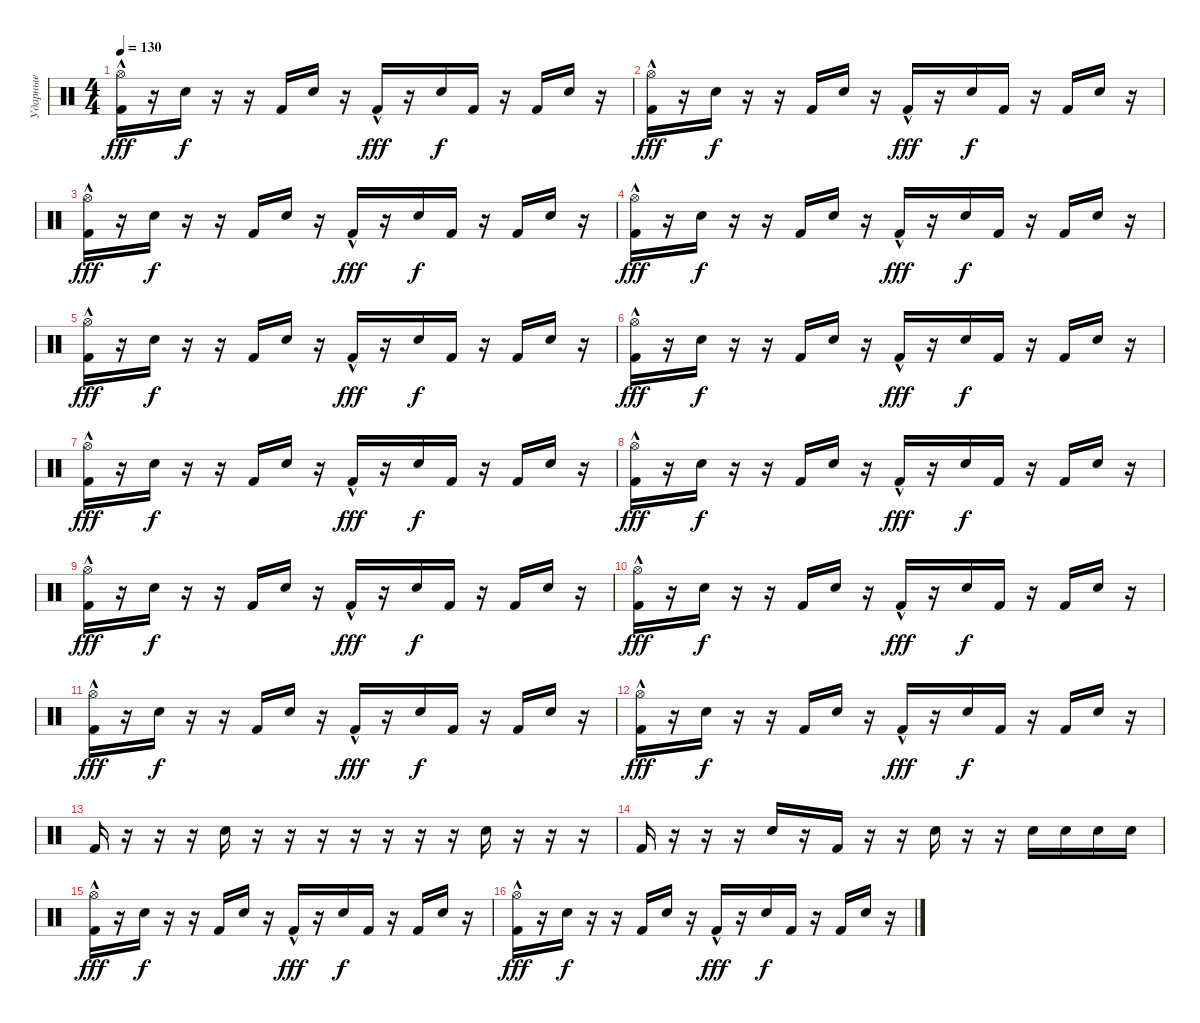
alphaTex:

\track ("Ударные" "Ударные") {instrument percussion}
\staff {score}
\articulation defaults
\ts (4 4)
\tempo 130
\clef neutral
\ks c
("Hi-Hat (open)" "Kick (hit) 2"{hac}).16{dy fff} r.16 "Electric Snare (hit)".16{dy f} r.16 r.16 "Kick (hit) 2".16 "Electric Snare (hit)".16 r.16 "Kick (hit) 2"{hac}.16{dy fff} r.16 "Electric Snare (hit)".16{dy f} "Kick (hit) 2".16 r.16 "Kick (hit) 2".16 "Electric Snare (hit)".16 r.16 |
("Hi-Hat (open)" "Kick (hit) 2"{hac}).16{dy fff} r.16 "Electric Snare (hit)".16{dy f} r.16 r.16 "Kick (hit) 2".16 "Electric Snare (hit)".16 r.16 "Kick (hit) 2"{hac}.16{dy fff} r.16 "Electric Snare (hit)".16{dy f} "Kick (hit) 2".16 r.16 "Kick (hit) 2".16 "Electric Snare (hit)".16 r.16 |
("Hi-Hat (open)" "Kick (hit) 2"{hac}).16{dy fff} r.16 "Electric Snare (hit)".16{dy f} r.16 r.16 "Kick (hit) 2".16 "Electric Snare (hit)".16 r.16 "Kick (hit) 2"{hac}.16{dy fff} r.16 "Electric Snare (hit)".16{dy f} "Kick (hit) 2".16 r.16 "Kick (hit) 2".16 "Electric Snare (hit)".16 r.16 |
("Hi-Hat (open)" "Kick (hit) 2"{hac}).16{dy fff} r.16 "Electric Snare (hit)".16{dy f} r.16 r.16 "Kick (hit) 2".16 "Electric Snare (hit)".16 r.16 "Kick (hit) 2"{hac}.16{dy fff} r.16 "Electric Snare (hit)".16{dy f} "Kick (hit) 2".16 r.16 "Kick (hit) 2".16 "Electric Snare (hit)".16 r.16 |
("Hi-Hat (open)" "Kick (hit) 2"{hac}).16{dy fff} r.16 "Electric Snare (hit)".16{dy f} r.16 r.16 "Kick (hit) 2".16 "Electric Snare (hit)".16 r.16 "Kick (hit) 2"{hac}.16{dy fff} r.16 "Electric Snare (hit)".16{dy f} "Kick (hit) 2".16 r.16 "Kick (hit) 2".16 "Electric Snare (hit)".16 r.16 |
("Hi-Hat (open)" "Kick (hit) 2"{hac}).16{dy fff} r.16 "Electric Snare (hit)".16{dy f} r.16 r.16 "Kick (hit) 2".16 "Electric Snare (hit)".16 r.16 "Kick (hit) 2"{hac}.16{dy fff} r.16 "Electric Snare (hit)".16{dy f} "Kick (hit) 2".16 r.16 "Kick (hit) 2".16 "Electric Snare (hit)".16 r.16 |
("Hi-Hat (open)" "Kick (hit) 2"{hac}).16{dy fff} r.16 "Electric Snare (hit)".16{dy f} r.16 r.16 "Kick (hit) 2".16 "Electric Snare (hit)".16 r.16 "Kick (hit) 2"{hac}.16{dy fff} r.16 "Electric Snare (hit)".16{dy f} "Kick (hit) 2".16 r.16 "Kick (hit) 2".16 "Electric Snare (hit)".16 r.16 |
("Hi-Hat (open)" "Kick (hit) 2"{hac}).16{dy fff} r.16 "Electric Snare (hit)".16{dy f} r.16 r.16 "Kick (hit) 2".16 "Electric Snare (hit)".16 r.16 "Kick (hit) 2"{hac}.16{dy fff} r.16 "Electric Snare (hit)".16{dy f} "Kick (hit) 2".16 r.16 "Kick (hit) 2".16 "Electric Snare (hit)".16 r.16 |
("Hi-Hat (open)" "Kick (hit) 2"{hac}).16{dy fff} r.16 "Electric Snare (hit)".16{dy f} r.16 r.16 "Kick (hit) 2".16 "Electric Snare (hit)".16 r.16 "Kick (hit) 2"{hac}.16{dy fff} r.16 "Electric Snare (hit)".16{dy f} "Kick (hit) 2".16 r.16 "Kick (hit) 2".16 "Electric Snare (hit)".16 r.16 |
("Hi-Hat (open)" "Kick (hit) 2"{hac}).16{dy fff} r.16 "Electric Snare (hit)".16{dy f} r.16 r.16 "Kick (hit) 2".16 "Electric Snare (hit)".16 r.16 "Kick (hit) 2"{hac}.16{dy fff} r.16 "Electric Snare (hit)".16{dy f} "Kick (hit) 2".16 r.16 "Kick (hit) 2".16 "Electric Snare (hit)".16 r.16 |
("Hi-Hat (open)" "Kick (hit) 2"{hac}).16{dy fff} r.16 "Electric Snare (hit)".16{dy f} r.16 r.16 "Kick (hit) 2".16 "Electric Snare (hit)".16 r.16 "Kick (hit) 2"{hac}.16{dy fff} r.16 "Electric Snare (hit)".16{dy f} "Kick (hit) 2".16 r.16 "Kick (hit) 2".16 "Electric Snare (hit)".16 r.16 |
("Hi-Hat (open)" "Kick (hit) 2"{hac}).16{dy fff} r.16 "Electric Snare (hit)".16{dy f} r.16 r.16 "Kick (hit) 2".16 "Electric Snare (hit)".16 r.16 "Kick (hit) 2"{hac}.16{dy fff} r.16 "Electric Snare (hit)".16{dy f} "Kick (hit) 2".16 r.16 "Kick (hit) 2".16 "Electric Snare (hit)".16 r.16 |
"Kick (hit) 2".16 r.16 r.16 r.16 "Electric Snare (hit)".16 r.16 r.16 r.16 r.16 r.16 r.16 r.16 "Electric Snare (hit)".16 r.16 r.16 r.16 |
"Kick (hit) 2".16 r.16 r.16 r.16 "Electric Snare (hit)".16 r.16 "Kick (hit) 2".16 r.16 r.16 "Electric Snare (hit)".16 r.16 r.16 "Electric Snare (hit)".16 "Electric Snare (hit)".16 "Electric Snare (hit)".16 "Electric Snare (hit)".16 |
("Hi-Hat (open)" "Kick (hit) 2"{hac}).16{dy fff} r.16 "Electric Snare (hit)".16{dy f} r.16 r.16 "Kick (hit) 2".16 "Electric Snare (hit)".16 r.16 "Kick (hit) 2"{hac}.16{dy fff} r.16 "Electric Snare (hit)".16{dy f} "Kick (hit) 2".16 r.16 "Kick (hit) 2".16 "Electric Snare (hit)".16 r.16 |
("Hi-Hat (open)" "Kick (hit) 2"{hac}).16{dy fff} r.16 "Electric Snare (hit)".16{dy f} r.16 r.16 "Kick (hit) 2".16 "Electric Snare (hit)".16 r.16 "Kick (hit) 2"{hac}.16{dy fff} r.16 "Electric Snare (hit)".16{dy f} "Kick (hit) 2".16 r.16 "Kick (hit) 2".16 "Electric Snare (hit)".16 r.16
